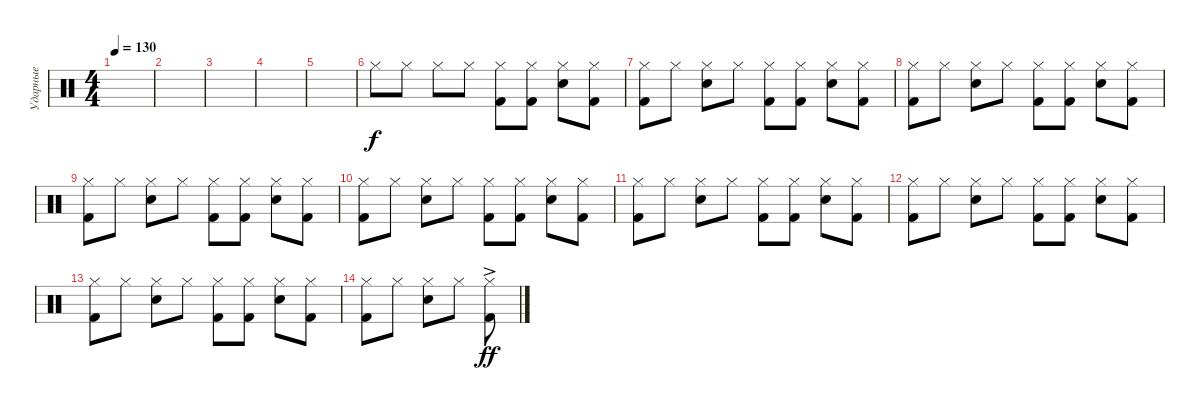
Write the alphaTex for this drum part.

\track ("Ударные" "Ударные") {instrument percussion}
\staff {score}
\articulation defaults
\ts (4 4)
\tempo 130
\clef neutral
\ks c
|
|
|
|
|
"Hi-Hat (closed)".8 "Hi-Hat (closed)".8 "Hi-Hat (closed)".8 "Hi-Hat (closed)".8 ("Hi-Hat (closed)" "Kick (hit) 2").8 ("Hi-Hat (closed)" "Kick (hit) 2").8 ("Hi-Hat (closed)" "Snare (hit) 2").8 ("Hi-Hat (closed)" "Kick (hit) 2").8 |
("Hi-Hat (closed)" "Kick (hit) 2").8 "Hi-Hat (closed)".8 ("Hi-Hat (closed)" "Snare (hit) 2").8 "Hi-Hat (closed)".8 ("Hi-Hat (closed)" "Kick (hit) 2").8 ("Hi-Hat (closed)" "Kick (hit) 2").8 ("Hi-Hat (closed)" "Snare (hit) 2").8 ("Hi-Hat (closed)" "Kick (hit) 2").8 |
("Hi-Hat (closed)" "Kick (hit) 2").8 "Hi-Hat (closed)".8 ("Hi-Hat (closed)" "Snare (hit) 2").8 "Hi-Hat (closed)".8 ("Hi-Hat (closed)" "Kick (hit) 2").8 ("Hi-Hat (closed)" "Kick (hit) 2").8 ("Hi-Hat (closed)" "Snare (hit) 2").8 ("Hi-Hat (closed)" "Kick (hit) 2").8 |
("Hi-Hat (closed)" "Kick (hit) 2").8 "Hi-Hat (closed)".8 ("Hi-Hat (closed)" "Snare (hit) 2").8 "Hi-Hat (closed)".8 ("Hi-Hat (closed)" "Kick (hit) 2").8 ("Hi-Hat (closed)" "Kick (hit) 2").8 ("Hi-Hat (closed)" "Snare (hit) 2").8 ("Hi-Hat (closed)" "Kick (hit) 2").8 |
("Hi-Hat (closed)" "Kick (hit) 2").8 "Hi-Hat (closed)".8 ("Hi-Hat (closed)" "Snare (hit) 2").8 "Hi-Hat (closed)".8 ("Hi-Hat (closed)" "Kick (hit) 2").8 ("Hi-Hat (closed)" "Kick (hit) 2").8 ("Hi-Hat (closed)" "Snare (hit) 2").8 ("Hi-Hat (closed)" "Kick (hit) 2").8 |
("Hi-Hat (closed)" "Kick (hit) 2").8 "Hi-Hat (closed)".8 ("Hi-Hat (closed)" "Snare (hit) 2").8 "Hi-Hat (closed)".8 ("Hi-Hat (closed)" "Kick (hit) 2").8 ("Hi-Hat (closed)" "Kick (hit) 2").8 ("Hi-Hat (closed)" "Snare (hit) 2").8 ("Hi-Hat (closed)" "Kick (hit) 2").8 |
("Hi-Hat (closed)" "Kick (hit) 2").8 "Hi-Hat (closed)".8 ("Hi-Hat (closed)" "Snare (hit) 2").8 "Hi-Hat (closed)".8 ("Hi-Hat (closed)" "Kick (hit) 2").8 ("Hi-Hat (closed)" "Kick (hit) 2").8 ("Hi-Hat (closed)" "Snare (hit) 2").8 ("Hi-Hat (closed)" "Kick (hit) 2").8 |
("Hi-Hat (closed)" "Kick (hit) 2").8 "Hi-Hat (closed)".8 ("Hi-Hat (closed)" "Snare (hit) 2").8 "Hi-Hat (closed)".8 ("Hi-Hat (closed)" "Kick (hit) 2").8 ("Hi-Hat (closed)" "Kick (hit) 2").8 ("Hi-Hat (closed)" "Snare (hit) 2").8 ("Hi-Hat (closed)" "Kick (hit) 2").8 |
("Hi-Hat (closed)" "Kick (hit) 2").8 "Hi-Hat (closed)".8 ("Hi-Hat (closed)" "Snare (hit) 2").8 "Hi-Hat (closed)".8 ("Hi-Hat (closed)"{ac} "Kick (hit) 2"{ac}).8{dy ff}
